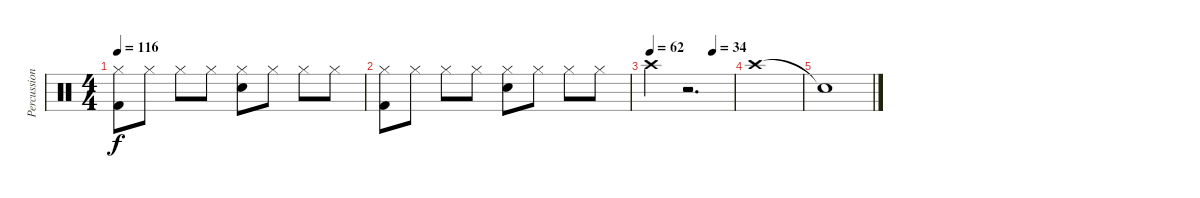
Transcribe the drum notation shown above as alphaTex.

\track ("Percussion" "Percussion") {instrument percussion}
\staff {score}
\articulation defaults
\ts (4 4)
\tempo 116
\clef neutral
\ks c
("Hi-Hat (closed)" "Kick (hit) 2").8{dy f} "Hi-Hat (closed)".8 "Hi-Hat (closed)".8 "Hi-Hat (closed)".8 ("Hi-Hat (closed)" "Snare (hit) 2").8 "Hi-Hat (closed)".8 "Hi-Hat (closed)".8 "Hi-Hat (closed)".8 |
("Hi-Hat (closed)" "Kick (hit) 2").8 "Hi-Hat (closed)".8 "Hi-Hat (closed)".8 "Hi-Hat (closed)".8 ("Hi-Hat (closed)" "Snare (hit) 2").8 "Hi-Hat (closed)".8 "Hi-Hat (closed)".8 "Hi-Hat (closed)".8 |
\tempo 62
\tempo (34 0.75)
"Crash high (hit)".4 r.2{d} |
"Crash high (hit)".1 |
"Snare (hit)"{t}.1
